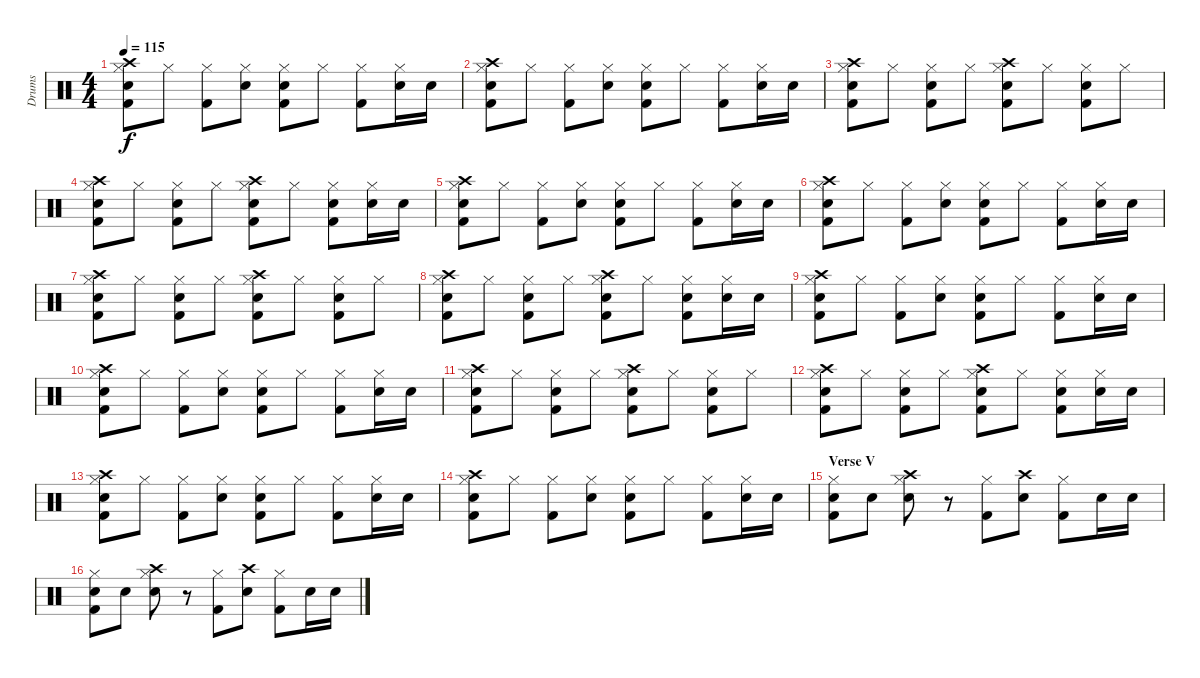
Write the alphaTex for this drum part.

\track ("Drums" "Drums") {instrument percussion}
\staff {score}
\articulation defaults
\ts (4 4)
\tempo 115
\clef neutral
\ks c
("Hi-Hat (closed)" "Kick (hit) 2" "Snare (hit) 2" "Crash high (hit)").8{dy f} "Hi-Hat (closed)".8 ("Hi-Hat (closed)" "Kick (hit) 2").8 ("Hi-Hat (closed)" "Snare (hit) 2").8 ("Hi-Hat (closed)" "Kick (hit) 2" "Snare (hit) 2").8 "Hi-Hat (closed)".8 ("Hi-Hat (closed)" "Kick (hit) 2").8 ("Hi-Hat (closed)" "Snare (hit) 2").16 "Snare (hit) 2".16 |
("Hi-Hat (closed)" "Kick (hit) 2" "Snare (hit) 2" "Crash high (hit)").8 "Hi-Hat (closed)".8 ("Hi-Hat (closed)" "Kick (hit) 2").8 ("Hi-Hat (closed)" "Snare (hit) 2").8 ("Hi-Hat (closed)" "Kick (hit) 2" "Snare (hit) 2").8 "Hi-Hat (closed)".8 ("Hi-Hat (closed)" "Kick (hit) 2").8 ("Hi-Hat (closed)" "Snare (hit) 2").16 "Snare (hit) 2".16 |
("Hi-Hat (closed)" "Kick (hit) 2" "Snare (hit) 2" "Crash high (hit)").8 "Hi-Hat (closed)".8 ("Hi-Hat (closed)" "Kick (hit) 2" "Snare (hit) 2").8 "Hi-Hat (closed)".8 ("Hi-Hat (closed)" "Kick (hit) 2" "Snare (hit) 2" "Crash high (hit)").8 "Hi-Hat (closed)".8 ("Hi-Hat (closed)" "Kick (hit) 2" "Snare (hit) 2").8 "Hi-Hat (closed)".8 |
("Hi-Hat (closed)" "Kick (hit) 2" "Snare (hit) 2" "Crash high (hit)").8 "Hi-Hat (closed)".8 ("Hi-Hat (closed)" "Kick (hit) 2" "Snare (hit) 2").8 "Hi-Hat (closed)".8 ("Hi-Hat (closed)" "Kick (hit) 2" "Snare (hit) 2" "Crash high (hit)").8 "Hi-Hat (closed)".8 ("Hi-Hat (closed)" "Kick (hit) 2" "Snare (hit) 2").8 ("Hi-Hat (closed)" "Snare (hit) 2").16 "Snare (hit) 2".16 |
("Hi-Hat (closed)" "Kick (hit) 2" "Snare (hit) 2" "Crash high (hit)").8 "Hi-Hat (closed)".8 ("Hi-Hat (closed)" "Kick (hit) 2").8 ("Hi-Hat (closed)" "Snare (hit) 2").8 ("Hi-Hat (closed)" "Kick (hit) 2" "Snare (hit) 2").8 "Hi-Hat (closed)".8 ("Hi-Hat (closed)" "Kick (hit) 2").8 ("Hi-Hat (closed)" "Snare (hit) 2").16 "Snare (hit) 2".16 |
("Hi-Hat (closed)" "Kick (hit) 2" "Snare (hit) 2" "Crash high (hit)").8 "Hi-Hat (closed)".8 ("Hi-Hat (closed)" "Kick (hit) 2").8 ("Hi-Hat (closed)" "Snare (hit) 2").8 ("Hi-Hat (closed)" "Kick (hit) 2" "Snare (hit) 2").8 "Hi-Hat (closed)".8 ("Hi-Hat (closed)" "Kick (hit) 2").8 ("Hi-Hat (closed)" "Snare (hit) 2").16 "Snare (hit) 2".16 |
("Hi-Hat (closed)" "Kick (hit) 2" "Snare (hit) 2" "Crash high (hit)").8 "Hi-Hat (closed)".8 ("Hi-Hat (closed)" "Kick (hit) 2" "Snare (hit) 2").8 "Hi-Hat (closed)".8 ("Hi-Hat (closed)" "Kick (hit) 2" "Snare (hit) 2" "Crash high (hit)").8 "Hi-Hat (closed)".8 ("Hi-Hat (closed)" "Kick (hit) 2" "Snare (hit) 2").8 "Hi-Hat (closed)".8 |
("Hi-Hat (closed)" "Kick (hit) 2" "Snare (hit) 2" "Crash high (hit)").8 "Hi-Hat (closed)".8 ("Hi-Hat (closed)" "Kick (hit) 2" "Snare (hit) 2").8 "Hi-Hat (closed)".8 ("Hi-Hat (closed)" "Kick (hit) 2" "Snare (hit) 2" "Crash high (hit)").8 "Hi-Hat (closed)".8 ("Hi-Hat (closed)" "Kick (hit) 2" "Snare (hit) 2").8 ("Hi-Hat (closed)" "Snare (hit) 2").16 "Snare (hit) 2".16 |
("Hi-Hat (closed)" "Kick (hit) 2" "Snare (hit) 2" "Crash high (hit)").8 "Hi-Hat (closed)".8 ("Hi-Hat (closed)" "Kick (hit) 2").8 ("Hi-Hat (closed)" "Snare (hit) 2").8 ("Hi-Hat (closed)" "Kick (hit) 2" "Snare (hit) 2").8 "Hi-Hat (closed)".8 ("Hi-Hat (closed)" "Kick (hit) 2").8 ("Hi-Hat (closed)" "Snare (hit) 2").16 "Snare (hit) 2".16 |
("Hi-Hat (closed)" "Kick (hit) 2" "Snare (hit) 2" "Crash high (hit)").8 "Hi-Hat (closed)".8 ("Hi-Hat (closed)" "Kick (hit) 2").8 ("Hi-Hat (closed)" "Snare (hit) 2").8 ("Hi-Hat (closed)" "Kick (hit) 2" "Snare (hit) 2").8 "Hi-Hat (closed)".8 ("Hi-Hat (closed)" "Kick (hit) 2").8 ("Hi-Hat (closed)" "Snare (hit) 2").16 "Snare (hit) 2".16 |
("Hi-Hat (closed)" "Kick (hit) 2" "Snare (hit) 2" "Crash high (hit)").8 "Hi-Hat (closed)".8 ("Hi-Hat (closed)" "Kick (hit) 2" "Snare (hit) 2").8 "Hi-Hat (closed)".8 ("Hi-Hat (closed)" "Kick (hit) 2" "Snare (hit) 2" "Crash high (hit)").8 "Hi-Hat (closed)".8 ("Hi-Hat (closed)" "Kick (hit) 2" "Snare (hit) 2").8 "Hi-Hat (closed)".8 |
("Hi-Hat (closed)" "Kick (hit) 2" "Snare (hit) 2" "Crash high (hit)").8 "Hi-Hat (closed)".8 ("Hi-Hat (closed)" "Kick (hit) 2" "Snare (hit) 2").8 "Hi-Hat (closed)".8 ("Hi-Hat (closed)" "Kick (hit) 2" "Snare (hit) 2" "Crash high (hit)").8 "Hi-Hat (closed)".8 ("Hi-Hat (closed)" "Kick (hit) 2" "Snare (hit) 2").8 ("Hi-Hat (closed)" "Snare (hit) 2").16 "Snare (hit) 2".16 |
("Hi-Hat (closed)" "Kick (hit) 2" "Snare (hit) 2" "Crash high (hit)").8 "Hi-Hat (closed)".8 ("Hi-Hat (closed)" "Kick (hit) 2").8 ("Hi-Hat (closed)" "Snare (hit) 2").8 ("Hi-Hat (closed)" "Kick (hit) 2" "Snare (hit) 2").8 "Hi-Hat (closed)".8 ("Hi-Hat (closed)" "Kick (hit) 2").8 ("Hi-Hat (closed)" "Snare (hit) 2").16 "Snare (hit) 2".16 |
("Hi-Hat (closed)" "Kick (hit) 2" "Snare (hit) 2" "Crash high (hit)").8 "Hi-Hat (closed)".8 ("Hi-Hat (closed)" "Kick (hit) 2").8 ("Hi-Hat (closed)" "Snare (hit) 2").8 ("Hi-Hat (closed)" "Kick (hit) 2" "Snare (hit) 2").8 "Hi-Hat (closed)".8 ("Hi-Hat (closed)" "Kick (hit) 2").8 ("Hi-Hat (closed)" "Snare (hit) 2").16 "Snare (hit) 2".16 |
\section ("" "Verse V")
("Hi-Hat (closed)" "Kick (hit) 2" "Snare (hit) 2").8 "Snare (hit) 2".8 ("Hi-Hat (closed)" "Crash high (hit)" "Snare (hit) 2").8 r.8 ("Hi-Hat (closed)" "Kick (hit) 2").8 ("Crash high (hit)" "Snare (hit) 2").8 ("Hi-Hat (closed)" "Kick (hit) 2").8 "Snare (hit) 2".16 "Snare (hit) 2".16 |
("Hi-Hat (closed)" "Kick (hit) 2" "Snare (hit) 2").8 "Snare (hit) 2".8 ("Hi-Hat (closed)" "Crash high (hit)" "Snare (hit) 2").8 r.8 ("Hi-Hat (closed)" "Kick (hit) 2").8 ("Crash high (hit)" "Snare (hit) 2").8 ("Hi-Hat (closed)" "Kick (hit) 2").8 "Snare (hit) 2".16 "Snare (hit) 2".16
